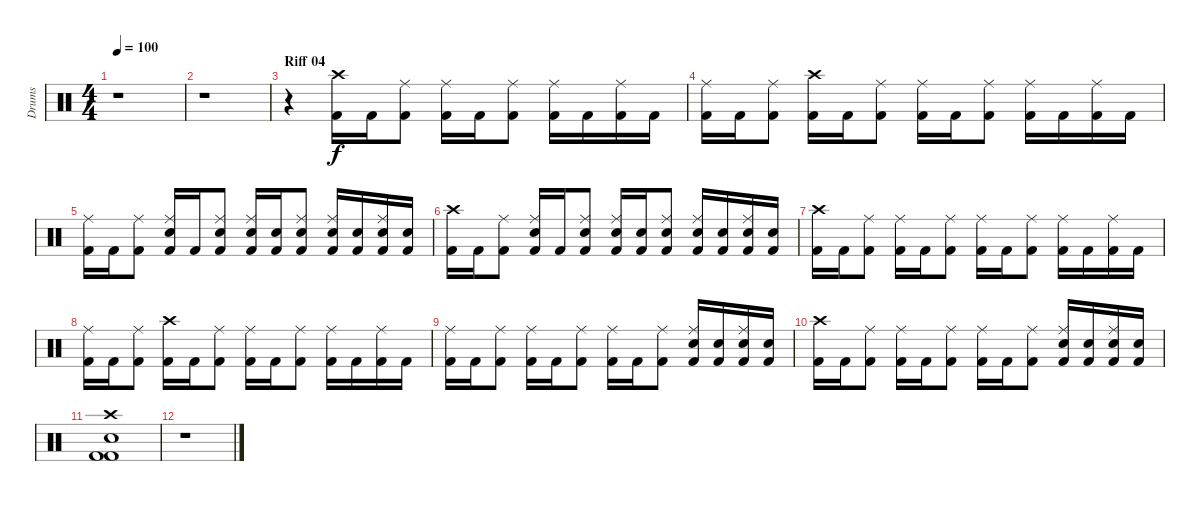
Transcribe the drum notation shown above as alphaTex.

\track ("Drums" "Drums") {instrument percussion}
\staff {score}
\articulation defaults
\ts (4 4)
\tempo 100
\clef neutral
\ks c
r.1{dy f} |
r.1 |
\section ("" "Riff 04")
r.4 ("Crash high (hit)" "Kick (hit) 2").16 "Kick (hit) 2".16 ("Ride (middle)" "Kick (hit) 2").8 ("Ride (middle)" "Kick (hit) 2").16 "Kick (hit) 2".16 ("Ride (middle)" "Kick (hit) 2").8 ("Ride (middle)" "Kick (hit) 2").16 "Kick (hit) 2".16 ("Ride (middle)" "Kick (hit) 2").16 "Kick (hit) 2".16 |
("Ride (middle)" "Kick (hit) 2").16 "Kick (hit) 2".16 ("Ride (middle)" "Kick (hit) 2").8 ("Crash high (hit)" "Kick (hit) 2").16 "Kick (hit) 2".16 ("Ride (middle)" "Kick (hit) 2").8 ("Ride (middle)" "Kick (hit) 2").16 "Kick (hit) 2".16 ("Ride (middle)" "Kick (hit) 2").8 ("Ride (middle)" "Kick (hit) 2").16 "Kick (hit) 2".16 ("Ride (middle)" "Kick (hit) 2").16 "Kick (hit) 2".16 |
("Ride (middle)" "Kick (hit) 2").16 "Kick (hit) 2".16 ("Ride (middle)" "Kick (hit) 2").8 ("Ride (middle)" "Snare (hit) 2" "Kick (hit) 2").16 "Kick (hit) 2".16 ("Ride (middle)" "Snare (hit) 2" "Kick (hit) 2").8 ("Ride (middle)" "Snare (hit) 2" "Kick (hit) 2").16 ("Snare (hit) 2" "Kick (hit) 2").16 ("Ride (middle)" "Snare (hit) 2" "Kick (hit) 2").8 ("Ride (middle)" "Snare (hit) 2" "Kick (hit) 2").16 ("Snare (hit) 2" "Kick (hit) 2").16 ("Ride (middle)" "Snare (hit) 2" "Kick (hit) 2").16 ("Snare (hit) 2" "Kick (hit) 2").16 |
("Crash high (hit)" "Kick (hit) 2").16 "Kick (hit) 2".16 ("Ride (middle)" "Kick (hit) 2").8 ("Ride (middle)" "Snare (hit) 2" "Kick (hit) 2").16 "Kick (hit) 2".16 ("Ride (middle)" "Snare (hit) 2" "Kick (hit) 2").8 ("Ride (middle)" "Snare (hit) 2" "Kick (hit) 2").16 ("Snare (hit) 2" "Kick (hit) 2").16 ("Ride (middle)" "Snare (hit) 2" "Kick (hit) 2").8 ("Ride (middle)" "Snare (hit) 2" "Kick (hit) 2").16 ("Snare (hit) 2" "Kick (hit) 2").16 ("Ride (middle)" "Snare (hit) 2" "Kick (hit) 2").16 ("Snare (hit) 2" "Kick (hit) 2").16 |
("Crash high (hit)" "Kick (hit) 2").16 "Kick (hit) 2".16 ("Ride (middle)" "Kick (hit) 2").8 ("Ride (middle)" "Kick (hit) 2").16 "Kick (hit) 2".16 ("Ride (middle)" "Kick (hit) 2").8 ("Ride (middle)" "Kick (hit) 2").16 "Kick (hit) 2".16 ("Ride (middle)" "Kick (hit) 2").8 ("Ride (middle)" "Kick (hit) 2").16 "Kick (hit) 2".16 ("Ride (middle)" "Kick (hit) 2").16 "Kick (hit) 2".16 |
("Ride (middle)" "Kick (hit) 2").16 "Kick (hit) 2".16 ("Ride (middle)" "Kick (hit) 2").8 ("Crash high (hit)" "Kick (hit) 2").16 "Kick (hit) 2".16 ("Ride (middle)" "Kick (hit) 2").8 ("Ride (middle)" "Kick (hit) 2").16 "Kick (hit) 2".16 ("Ride (middle)" "Kick (hit) 2").8 ("Ride (middle)" "Kick (hit) 2").16 "Kick (hit) 2".16 ("Ride (middle)" "Kick (hit) 2").16 "Kick (hit) 2".16 |
("Ride (middle)" "Kick (hit) 2").16 "Kick (hit) 2".16 ("Ride (middle)" "Kick (hit) 2").8 ("Ride (middle)" "Kick (hit) 2").16 "Kick (hit) 2".16 ("Ride (middle)" "Kick (hit) 2").8 ("Ride (middle)" "Kick (hit) 2").16 "Kick (hit) 2".16 ("Ride (middle)" "Kick (hit) 2").8 ("Ride (middle)" "Snare (hit) 2" "Kick (hit) 2").16 ("Snare (hit) 2" "Kick (hit) 2").16 ("Ride (middle)" "Snare (hit) 2" "Kick (hit) 2").16 ("Snare (hit) 2" "Kick (hit) 2").16 |
("Crash high (hit)" "Kick (hit) 2").16 "Kick (hit) 2".16 ("Ride (middle)" "Kick (hit) 2").8 ("Ride (middle)" "Kick (hit) 2").16 "Kick (hit) 2".16 ("Ride (middle)" "Kick (hit) 2").8 ("Ride (middle)" "Kick (hit) 2").16 "Kick (hit) 2".16 ("Ride (middle)" "Kick (hit) 2").8 ("Ride (middle)" "Snare (hit) 2" "Kick (hit) 2").16 ("Snare (hit) 2" "Kick (hit) 2").16 ("Ride (middle)" "Snare (hit) 2" "Kick (hit) 2").16 ("Snare (hit) 2" "Kick (hit) 2").16 |
("Crash high (hit)" "Snare (hit) 2" "Kick (hit) 2" "Kick (hit) 2").1 |
r.1
